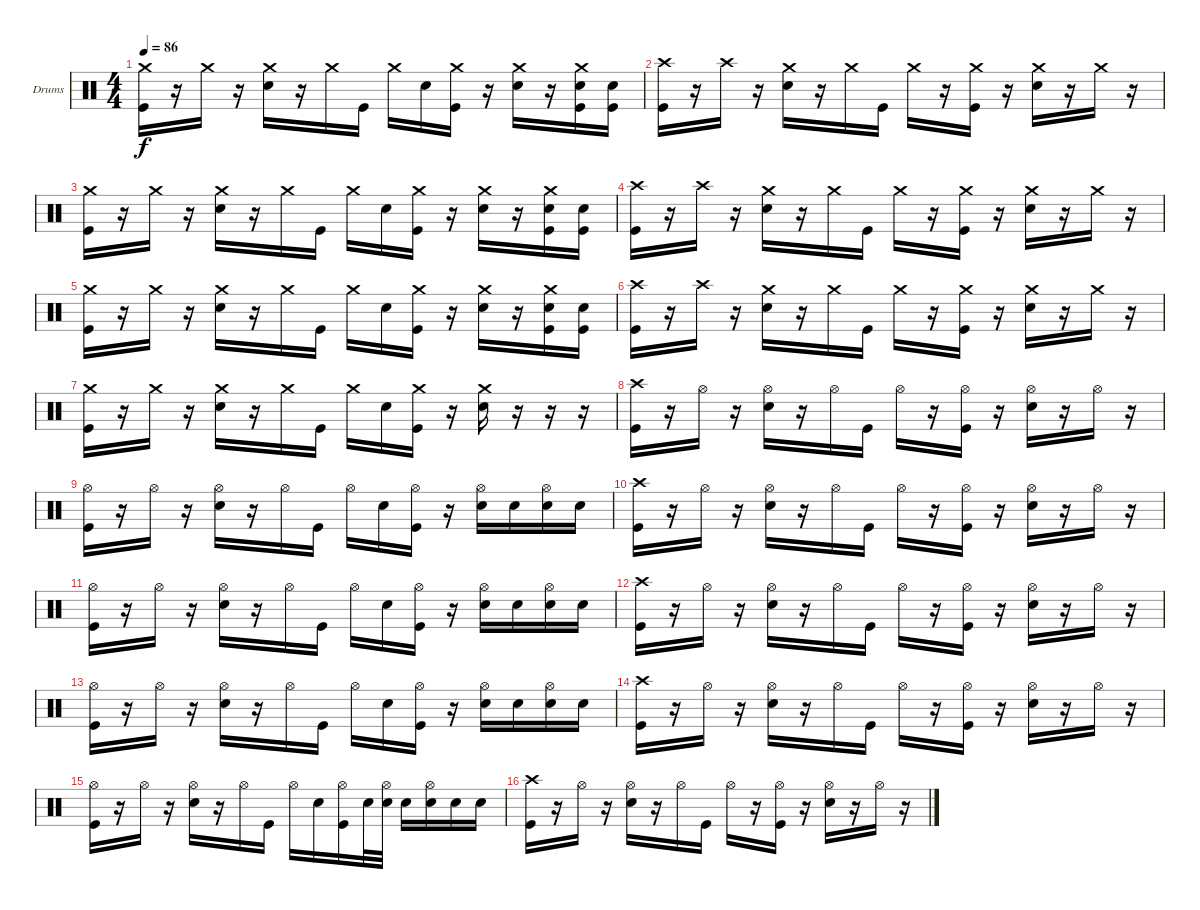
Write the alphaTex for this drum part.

\defaultSystemsLayout 4
\bracketExtendMode groupsimilarinstruments
\firstSystemTrackNameOrientation horizontal
\otherSystemsTrackNameOrientation horizontal
\track ("Rocky Gray (Drums)" "Drums") {instrument percussion}
\staff {score}
\articulation defaults
\ts (4 4)
\tempo 86
\clef neutral
\scale
0.333333
\ks c
("Crash medium (hit)" "Kick (hit)").16{dy f} r.16 "Crash medium (hit)".16 r.16 ("Crash medium (hit)" "Snare (hit) 2").16 r.16 "Crash medium (hit)".16 "Kick (hit)".16 "Crash medium (hit)".16 "Snare (hit) 2".16 ("Crash medium (hit)" "Kick (hit)").16 r.16 ("Crash medium (hit)" "Snare (hit) 2").16 r.16 ("Crash medium (hit)" "Snare (hit) 2" "Kick (hit)").16 ("Snare (hit) 2" "Kick (hit)").16 |
\scale
0.333333 ("Crash high (hit)" "Kick (hit)").16 r.16 "Crash high (hit)".16 r.16 ("Crash medium (hit)" "Snare (hit) 2").16 r.16 "Crash medium (hit)".16 "Kick (hit)".16 "Crash medium (hit)".16 r.16 ("Crash medium (hit)" "Kick (hit)").16 r.16 ("Crash medium (hit)" "Snare (hit) 2").16 r.16 "Crash medium (hit)".16 r.16 |
\scale
0.333333 ("Crash medium (hit)" "Kick (hit)").16 r.16 "Crash medium (hit)".16 r.16 ("Crash medium (hit)" "Snare (hit) 2").16 r.16 "Crash medium (hit)".16 "Kick (hit)".16 "Crash medium (hit)".16 "Snare (hit) 2".16 ("Crash medium (hit)" "Kick (hit)").16 r.16 ("Crash medium (hit)" "Snare (hit) 2").16 r.16 ("Crash medium (hit)" "Snare (hit) 2" "Kick (hit)").16 ("Snare (hit) 2" "Kick (hit)").16 |
\scale
0.333333 ("Crash high (hit)" "Kick (hit)").16 r.16 "Crash high (hit)".16 r.16 ("Crash medium (hit)" "Snare (hit) 2").16 r.16 "Crash medium (hit)".16 "Kick (hit)".16 "Crash medium (hit)".16 r.16 ("Crash medium (hit)" "Kick (hit)").16 r.16 ("Crash medium (hit)" "Snare (hit) 2").16 r.16 "Crash medium (hit)".16 r.16 |
\scale
0.333333 ("Crash medium (hit)" "Kick (hit)").16 r.16 "Crash medium (hit)".16 r.16 ("Crash medium (hit)" "Snare (hit) 2").16 r.16 "Crash medium (hit)".16 "Kick (hit)".16 "Crash medium (hit)".16 "Snare (hit) 2".16 ("Crash medium (hit)" "Kick (hit)").16 r.16 ("Crash medium (hit)" "Snare (hit) 2").16 r.16 ("Crash medium (hit)" "Snare (hit) 2" "Kick (hit)").16 ("Snare (hit) 2" "Kick (hit)").16 |
\scale
0.333333 ("Crash high (hit)" "Kick (hit)").16 r.16 "Crash high (hit)".16 r.16 ("Crash medium (hit)" "Snare (hit) 2").16 r.16 "Crash medium (hit)".16 "Kick (hit)".16 "Crash medium (hit)".16 r.16 ("Crash medium (hit)" "Kick (hit)").16 r.16 ("Crash medium (hit)" "Snare (hit) 2").16 r.16 "Crash medium (hit)".16 r.16 |
\scale
0.333333 ("Crash medium (hit)" "Kick (hit)").16 r.16 "Crash medium (hit)".16 r.16 ("Crash medium (hit)" "Snare (hit) 2").16 r.16 "Crash medium (hit)".16 "Kick (hit)".16 "Crash medium (hit)".16 "Snare (hit) 2".16 ("Crash medium (hit)" "Kick (hit)").16 r.16 ("Crash medium (hit)" "Snare (hit) 2").16 r.16 r.16 r.16 |
\scale
0.333333 ("Crash high (hit)" "Kick (hit)").16 r.16 "Hi-Hat (open)".16 r.16 ("Hi-Hat (open)" "Snare (hit) 2").16 r.16 "Hi-Hat (open)".16 "Kick (hit)".16 "Hi-Hat (open)".16 r.16 ("Hi-Hat (open)" "Kick (hit)").16 r.16 ("Hi-Hat (open)" "Snare (hit) 2").16 r.16 "Hi-Hat (open)".16 r.16 |
\scale
0.333333 ("Hi-Hat (open)" "Kick (hit)").16 r.16 "Hi-Hat (open)".16 r.16 ("Hi-Hat (open)" "Snare (hit) 2").16 r.16 "Hi-Hat (open)".16 "Kick (hit)".16 "Hi-Hat (open)".16 "Snare (hit) 2".16 ("Hi-Hat (open)" "Kick (hit)").16 r.16 ("Hi-Hat (open)" "Snare (hit) 2").16 "Snare (hit) 2".16 ("Hi-Hat (open)" "Snare (hit) 2").16 "Snare (hit) 2".16 |
\scale
0.333333 ("Crash high (hit)" "Kick (hit)").16 r.16 "Hi-Hat (open)".16 r.16 ("Hi-Hat (open)" "Snare (hit) 2").16 r.16 "Hi-Hat (open)".16 "Kick (hit)".16 "Hi-Hat (open)".16 r.16 ("Hi-Hat (open)" "Kick (hit)").16 r.16 ("Hi-Hat (open)" "Snare (hit) 2").16 r.16 "Hi-Hat (open)".16 r.16 |
\scale
0.333333 ("Hi-Hat (open)" "Kick (hit)").16 r.16 "Hi-Hat (open)".16 r.16 ("Hi-Hat (open)" "Snare (hit) 2").16 r.16 "Hi-Hat (open)".16 "Kick (hit)".16 "Hi-Hat (open)".16 "Snare (hit) 2".16 ("Hi-Hat (open)" "Kick (hit)").16 r.16 ("Hi-Hat (open)" "Snare (hit) 2").16 "Snare (hit) 2".16 ("Hi-Hat (open)" "Snare (hit) 2").16 "Snare (hit) 2".16 |
\scale
0.333333 ("Crash high (hit)" "Kick (hit)").16 r.16 "Hi-Hat (open)".16 r.16 ("Hi-Hat (open)" "Snare (hit) 2").16 r.16 "Hi-Hat (open)".16 "Kick (hit)".16 "Hi-Hat (open)".16 r.16 ("Hi-Hat (open)" "Kick (hit)").16 r.16 ("Hi-Hat (open)" "Snare (hit) 2").16 r.16 "Hi-Hat (open)".16 r.16 |
\scale
0.333333 ("Hi-Hat (open)" "Kick (hit)").16 r.16 "Hi-Hat (open)".16 r.16 ("Hi-Hat (open)" "Snare (hit) 2").16 r.16 "Hi-Hat (open)".16 "Kick (hit)".16 "Hi-Hat (open)".16 "Snare (hit) 2".16 ("Hi-Hat (open)" "Kick (hit)").16 r.16 ("Hi-Hat (open)" "Snare (hit) 2").16 "Snare (hit) 2".16 ("Hi-Hat (open)" "Snare (hit) 2").16 "Snare (hit) 2".16 |
\scale
0.333333 ("Crash high (hit)" "Kick (hit)").16 r.16 "Hi-Hat (open)".16 r.16 ("Hi-Hat (open)" "Snare (hit) 2").16 r.16 "Hi-Hat (open)".16 "Kick (hit)".16 "Hi-Hat (open)".16 r.16 ("Hi-Hat (open)" "Kick (hit)").16 r.16 ("Hi-Hat (open)" "Snare (hit) 2").16 r.16 "Hi-Hat (open)".16 r.16 |
\scale
0.333333 ("Hi-Hat (open)" "Kick (hit)").16 r.16 "Hi-Hat (open)".16 r.16 ("Hi-Hat (open)" "Snare (hit) 2").16 r.16 "Hi-Hat (open)".16 "Kick (hit)".16 "Hi-Hat (open)".16 "Snare (hit) 2".16 ("Hi-Hat (open)" "Kick (hit)").16 "Snare (hit) 2".32 ("Hi-Hat (open)" "Snare (hit) 2").32 "Snare (hit) 2".16 ("Hi-Hat (open)" "Snare (hit) 2").16 "Snare (hit) 2".16 "Snare (hit) 2".16 |
\scale
0.333333 ("Crash high (hit)" "Kick (hit)").16 r.16 "Hi-Hat (open)".16 r.16 ("Hi-Hat (open)" "Snare (hit) 2").16 r.16 "Hi-Hat (open)".16 "Kick (hit)".16 "Hi-Hat (open)".16 r.16 ("Hi-Hat (open)" "Kick (hit)").16 r.16 ("Hi-Hat (open)" "Snare (hit) 2").16 r.16 "Hi-Hat (open)".16 r.16
